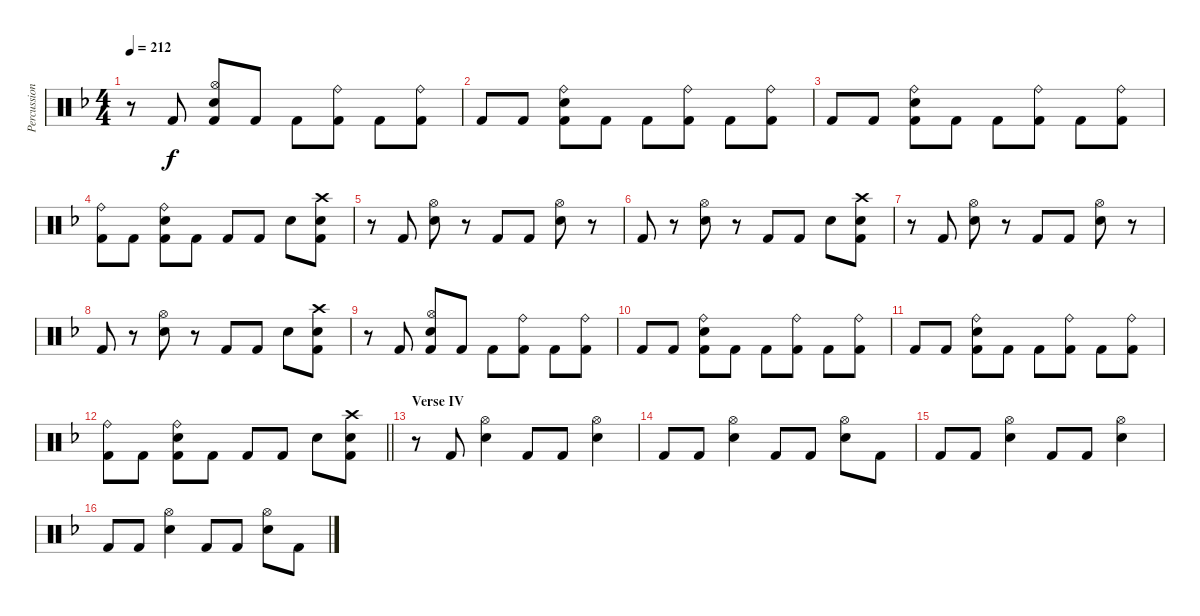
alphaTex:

\track ("Percussion" "Percussion") {instrument percussion}
\staff {score}
\articulation defaults
\ts (4 4)
\tempo 212
\clef neutral
\ks dminor
r.8{dy f} "Kick (hit) 2".8 ("Hi-Hat (open)" "Electric Snare (hit)" "Kick (hit) 2").8 "Kick (hit) 2".8 "Kick (hit) 2".8 ("Ride (bell)" "Kick (hit) 2").8 "Kick (hit) 2".8 ("Ride (bell)" "Kick (hit) 2").8 |
"Kick (hit) 2".8 "Kick (hit) 2".8 ("Ride (bell)" "Electric Snare (hit)" "Kick (hit) 2").8 "Kick (hit) 2".8 "Kick (hit) 2".8 ("Ride (bell)" "Kick (hit) 2").8 "Kick (hit) 2".8 ("Ride (bell)" "Kick (hit) 2").8 |
"Kick (hit) 2".8 "Kick (hit) 2".8 ("Ride (bell)" "Electric Snare (hit)" "Kick (hit) 2").8 "Kick (hit) 2".8 "Kick (hit) 2".8 ("Ride (bell)" "Kick (hit) 2").8 "Kick (hit) 2".8 ("Ride (bell)" "Kick (hit) 2").8 |
("Ride (bell)" "Kick (hit) 2").8 "Kick (hit) 2".8 ("Ride (bell)" "Electric Snare (hit)" "Kick (hit) 2").8 "Kick (hit) 2".8 "Kick (hit) 2".8 "Kick (hit) 2".8 "Electric Snare (hit)".8 ("Crash high (hit)" "Electric Snare (hit)" "Kick (hit) 2").8 |
r.8 "Kick (hit) 2".8 ("Hi-Hat (open)" "Electric Snare (hit)").8 r.8 "Kick (hit) 2".8 "Kick (hit) 2".8 ("Hi-Hat (open)" "Electric Snare (hit)").8 r.8 |
"Kick (hit) 2".8 r.8 ("Hi-Hat (open)" "Electric Snare (hit)").8 r.8 "Kick (hit) 2".8 "Kick (hit) 2".8 "Electric Snare (hit)".8 ("Crash high (hit)" "Electric Snare (hit)" "Kick (hit) 2").8 |
r.8 "Kick (hit) 2".8 ("Hi-Hat (open)" "Electric Snare (hit)").8 r.8 "Kick (hit) 2".8 "Kick (hit) 2".8 ("Hi-Hat (open)" "Electric Snare (hit)").8 r.8 |
"Kick (hit) 2".8 r.8 ("Hi-Hat (open)" "Electric Snare (hit)").8 r.8 "Kick (hit) 2".8 "Kick (hit) 2".8 "Electric Snare (hit)".8 ("Crash high (hit)" "Electric Snare (hit)" "Kick (hit) 2").8 |
r.8 "Kick (hit) 2".8 ("Hi-Hat (open)" "Electric Snare (hit)" "Kick (hit) 2").8 "Kick (hit) 2".8 "Kick (hit) 2".8 ("Ride (bell)" "Kick (hit) 2").8 "Kick (hit) 2".8 ("Ride (bell)" "Kick (hit) 2").8 |
"Kick (hit) 2".8 "Kick (hit) 2".8 ("Ride (bell)" "Electric Snare (hit)" "Kick (hit) 2").8 "Kick (hit) 2".8 "Kick (hit) 2".8 ("Ride (bell)" "Kick (hit) 2").8 "Kick (hit) 2".8 ("Ride (bell)" "Kick (hit) 2").8 |
"Kick (hit) 2".8 "Kick (hit) 2".8 ("Ride (bell)" "Electric Snare (hit)" "Kick (hit) 2").8 "Kick (hit) 2".8 "Kick (hit) 2".8 ("Ride (bell)" "Kick (hit) 2").8 "Kick (hit) 2".8 ("Ride (bell)" "Kick (hit) 2").8 |
\barLineRight lightlight
("Ride (bell)" "Kick (hit) 2").8 "Kick (hit) 2".8 ("Ride (bell)" "Electric Snare (hit)" "Kick (hit) 2").8 "Kick (hit) 2".8 "Kick (hit) 2".8 "Kick (hit) 2".8 "Electric Snare (hit)".8 ("Crash high (hit)" "Electric Snare (hit)" "Kick (hit) 2").8 |
\section ("" "Verse IV")
r.8 "Kick (hit) 2".8 ("Hi-Hat (open)" "Electric Snare (hit)").4 "Kick (hit) 2".8 "Kick (hit) 2".8 ("Hi-Hat (open)" "Electric Snare (hit)").4 |
"Kick (hit) 2".8 "Kick (hit) 2".8 ("Hi-Hat (open)" "Electric Snare (hit)").4 "Kick (hit) 2".8 "Kick (hit) 2".8 ("Hi-Hat (open)" "Electric Snare (hit)").8 "Kick (hit) 2".8 |
"Kick (hit) 2".8 "Kick (hit) 2".8 ("Hi-Hat (open)" "Electric Snare (hit)").4 "Kick (hit) 2".8 "Kick (hit) 2".8 ("Hi-Hat (open)" "Electric Snare (hit)").4 |
"Kick (hit) 2".8 "Kick (hit) 2".8 ("Hi-Hat (open)" "Electric Snare (hit)").4 "Kick (hit) 2".8 "Kick (hit) 2".8 ("Hi-Hat (open)" "Electric Snare (hit)").8 "Kick (hit) 2".8
